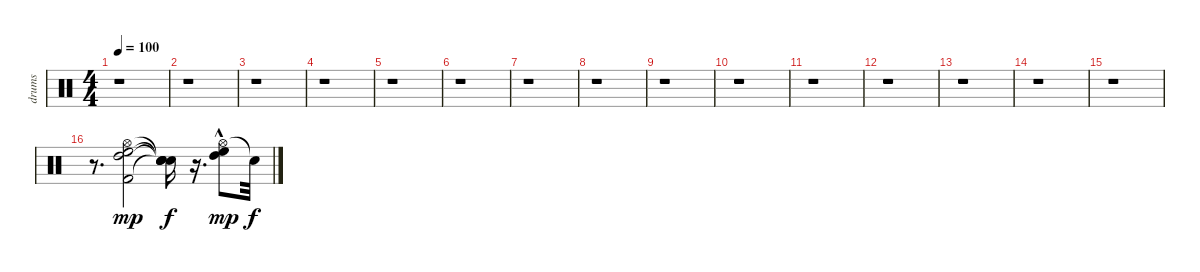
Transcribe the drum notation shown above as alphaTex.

\track ("drums" "drums") {instrument percussion}
\staff {score}
\articulation defaults
\ts (4 4)
\tempo 100
\clef neutral
\ks c
r.1{dy f} |
r.1 |
r.1 |
r.1 |
r.1 |
r.1 |
r.1 |
r.1 |
r.1 |
r.1 |
r.1 |
r.1 |
r.1 |
r.1 |
r.1 |
r.8{d} ("Hi-Hat (open)" "Kick (hit) 2" "High Tom (hit)" "High Floor Tom (hit)").2{dy mp} ("Snare (hit)"{t} "Snare (hit)"{t} "Snare (hit)"{t} "Snare (hit)"{t}).16{dy f} r.16{d} ("Hi-Hat (open)" "High Tom (hit)"{hac} "High Floor Tom (hit)"{hac}).8{dy mp} "Snare (hit)"{t}.32{dy f}
